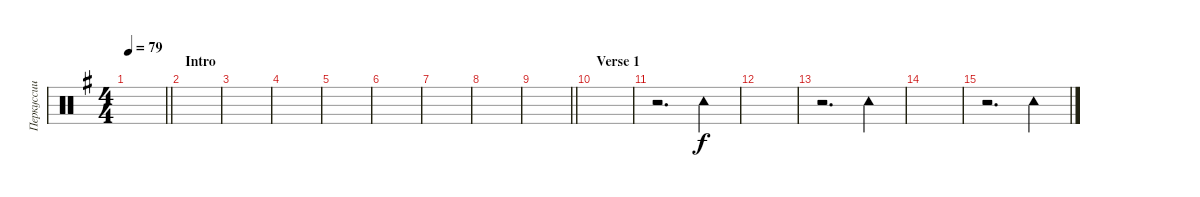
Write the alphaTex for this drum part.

\track ("Перкуссии" "Перкуссии") {instrument percussion}
\staff {score}
\articulation defaults
\ts (4 4)
\tempo 79
\clef neutral
\barLineRight lightlight
\ks eminor
|
\section ("" "Intro")
|
|
|
|
|
|
|
\barLineRight lightlight
|
\section ("" "Verse 1")
|
r.2{d} "Tambourine (hit)".4 |
|
r.2{d} "Tambourine (hit)".4 |
|
r.2{d} "Tambourine (hit)".4
